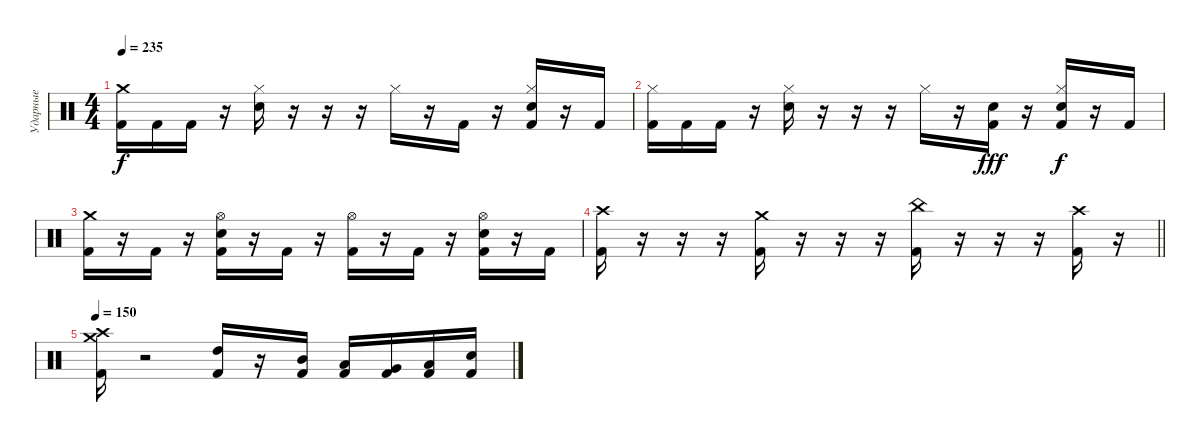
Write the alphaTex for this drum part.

\track ("Ударные" "Ударные") {instrument percussion}
\staff {score}
\articulation defaults
\ts (4 4)
\tempo 235
\clef neutral
\ks c
("Crash medium (hit)" "Kick (hit) 2").16{dy f} "Kick (hit) 2".16 "Kick (hit) 2".16 r.16 ("Hi-Hat (closed)" "Snare (hit) 2").16 r.16 r.16 r.16 "Hi-Hat (closed)".16 r.16 "Kick (hit) 2".16 r.16 ("Hi-Hat (closed)" "Snare (hit) 2" "Kick (hit) 2").16 r.16 "Kick (hit) 2".16 |
("Hi-Hat (closed)" "Kick (hit) 2").16 "Kick (hit) 2".16 "Kick (hit) 2".16 r.16 ("Hi-Hat (closed)" "Snare (hit) 2").16 r.16 r.16 r.16 "Hi-Hat (closed)".16 r.16 ("Snare (hit) 2" "Kick (hit) 2").16{dy fff} r.16 ("Hi-Hat (closed)" "Snare (hit) 2" "Kick (hit) 2").16{dy f} r.16 "Kick (hit) 2".16 |
("Crash medium (hit)" "Kick (hit) 2").16 r.16 "Kick (hit) 2".16 r.16 ("Hi-Hat (open)" "Snare (hit) 2" "Kick (hit) 2").16 r.16 "Kick (hit) 2".16 r.16 ("Hi-Hat (open)" "Kick (hit) 2").16 r.16 "Kick (hit) 2".16 r.16 ("Hi-Hat (open)" "Snare (hit) 2" "Kick (hit) 2").16 r.16 "Kick (hit) 2".16 |
\barLineRight lightlight
("Crash high (hit)" "Kick (hit) 2").16 r.16 r.16 r.16 ("Crash medium (hit)" "Kick (hit) 2").16 r.16 r.16 r.16 ("China (hit)" "Kick (hit) 2").16 r.16 r.16 r.16 ("Crash high (hit)" "Kick (hit) 2").16 r.16 |
\tempo 150
("Crash medium (hit)" "Crash high (hit)" "Kick (hit) 2").16 r.2 ("High Tom (hit)" "Kick (hit) 2").16 r.16 ("Mid Tom (hit)" "Kick (hit) 2").16 ("Low Tom (hit)" "Kick (hit) 2").16 ("Very Low Tom (hit)" "Kick (hit) 2").16 ("Low Floor Tom (hit)" "Kick (hit) 2").16 ("Snare (hit) 2" "Kick (hit) 2").16
